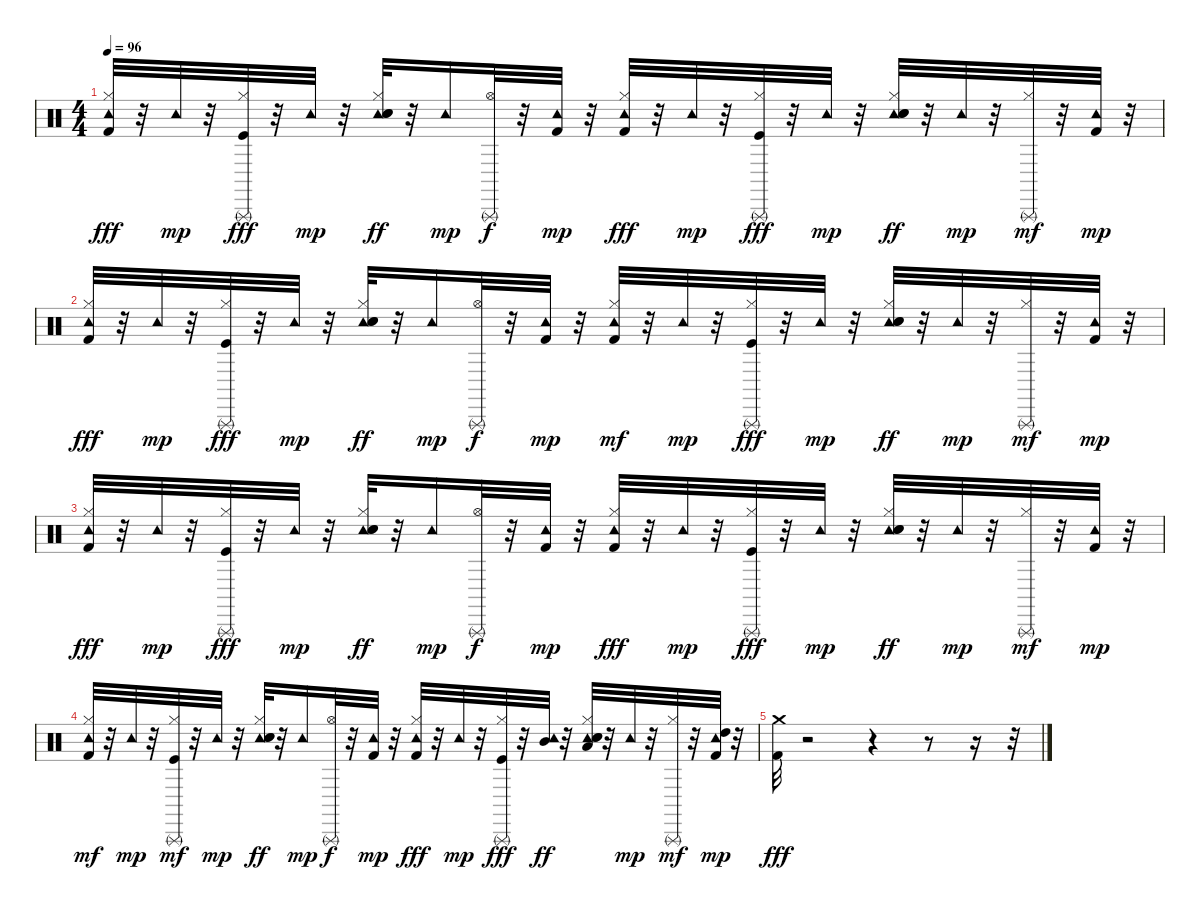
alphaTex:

\track "" {instrument percussion}
\staff {score}
\articulation defaults
\ts (4 4)
\tempo 96
\clef neutral
\ks c
("Hi-Hat (closed)" "Tambourine (hit)" "Kick (hit) 2").32{dy fff} r.32 "Tambourine (hit)".32{dy mp} r.32 ("Hi-Hat (closed)" "Kick (hit)" "Triangle (rnute)").32{dy fff} r.32 "Tambourine (hit)".32{dy mp} r.32 ("Tambourine (hit)" "Snare (hit) 2" "Hi-Hat (closed)" "Hand Clap (hit)").32{dy ff} r.32 "Tambourine (hit)".16{dy mp} ("Hi-Hat (open)" "Triangle (rnute)").32{dy f} r.32 ("Tambourine (hit)" "Kick (hit) 2").32{dy mp} r.32 ("Hi-Hat (closed)" "Tambourine (hit)" "Kick (hit) 2").32{dy fff} r.32 "Tambourine (hit)".32{dy mp} r.32 ("Hi-Hat (closed)" "Kick (hit)" "Triangle (rnute)").32{dy fff} r.32 "Tambourine (hit)".32{dy mp} r.32 ("Hi-Hat (closed)" "Tambourine (hit)" "Snare (hit) 2" "Hand Clap (hit)").32{dy ff} r.32 "Tambourine (hit)".32{dy mp} r.32 ("Triangle (rnute)" "Hi-Hat (closed)").32{dy mf} r.32 ("Tambourine (hit)" "Kick (hit) 2").32{dy mp} r.32 |
("Tambourine (hit)" "Hi-Hat (closed)" "Kick (hit) 2").32{dy fff} r.32 "Tambourine (hit)".32{dy mp} r.32 ("Triangle (rnute)" "Hi-Hat (closed)" "Kick (hit)").32{dy fff} r.32 "Tambourine (hit)".32{dy mp} r.32 ("Tambourine (hit)" "Hi-Hat (closed)" "Snare (hit) 2" "Hand Clap (hit)").32{dy ff} r.32 "Tambourine (hit)".16{dy mp} ("Triangle (rnute)" "Hi-Hat (open)").32{dy f} r.32 ("Kick (hit) 2" "Tambourine (hit)").32{dy mp} r.32 ("Hi-Hat (closed)" "Kick (hit) 2" "Tambourine (hit)").32{dy mf} r.32 "Tambourine (hit)".32{dy mp} r.32 ("Hi-Hat (closed)" "Kick (hit)" "Triangle (rnute)").32{dy fff} r.32 "Tambourine (hit)".32{dy mp} r.32 ("Tambourine (hit)" "Hi-Hat (closed)" "Snare (hit) 2" "Hand Clap (hit)").32{dy ff} r.32 "Tambourine (hit)".32{dy mp} r.32 ("Triangle (rnute)" "Hi-Hat (closed)").32{dy mf} r.32 ("Kick (hit) 2" "Tambourine (hit)").32{dy mp} r.32 |
("Tambourine (hit)" "Kick (hit) 2" "Hi-Hat (closed)").32{dy fff} r.32 "Tambourine (hit)".32{dy mp} r.32 ("Hi-Hat (closed)" "Kick (hit)" "Triangle (rnute)").32{dy fff} r.32 "Tambourine (hit)".32{dy mp} r.32 ("Hi-Hat (closed)" "Tambourine (hit)" "Snare (hit) 2" "Hand Clap (hit)").32{dy ff} r.32 "Tambourine (hit)".16{dy mp} ("Hi-Hat (open)" "Triangle (rnute)").32{dy f} r.32 ("Tambourine (hit)" "Kick (hit) 2").32{dy mp} r.32 ("Tambourine (hit)" "Kick (hit) 2" "Hi-Hat (closed)").32{dy fff} r.32 "Tambourine (hit)".32{dy mp} r.32 ("Hi-Hat (closed)" "Kick (hit)" "Triangle (rnute)").32{dy fff} r.32 "Tambourine (hit)".32{dy mp} r.32 ("Hi-Hat (closed)" "Tambourine (hit)" "Snare (hit) 2" "Hand Clap (hit)").32{dy ff} r.32 "Tambourine (hit)".32{dy mp} r.32 ("Hi-Hat (closed)" "Triangle (rnute)").32{dy mf} r.32 ("Kick (hit) 2" "Tambourine (hit)").32{dy mp} r.32 |
("Kick (hit) 2" "Tambourine (hit)" "Hi-Hat (closed)").32{dy mf} r.32 "Tambourine (hit)".32{dy mp} r.32 ("Kick (hit)" "Triangle (rnute)" "Hi-Hat (closed)").32{dy mf} r.32 "Tambourine (hit)".32{dy mp} r.32 ("Tambourine (hit)" "Snare (hit) 2" "Hi-Hat (closed)" "Hand Clap (hit)").32{dy ff} r.32 "Tambourine (hit)".16{dy mp} ("Hi-Hat (open)" "Triangle (rnute)").32{dy f} r.32 ("Tambourine (hit)" "Kick (hit) 2").32{dy mp} r.32 ("Hi-Hat (closed)" "Tambourine (hit)" "Kick (hit) 2").32{dy fff} r.32 "Tambourine (hit)".32{dy mp} r.32 ("Hi-Hat (closed)" "Kick (hit)" "Triangle (rnute)").32{dy fff} r.32 ("Tambourine (hit)" "Mid Tom (hit)").32{dy ff} r.32 ("Tambourine (hit)" "Hi-Hat (closed)" "Low Tom (hit)" "Snare (hit) 2" "Hand Clap (hit)").32 r.32 "Tambourine (hit)".32{dy mp} r.32 ("Hi-Hat (closed)" "Triangle (rnute)").32{dy mf} r.32 ("High Tom (hit)" "Tambourine (hit)" "Kick (hit) 2").32{dy mp} r.32 |
("Kick (hit) 2" "Crash medium (hit)").32{dy fff} r.2 r.4 r.8 r.16 r.32
